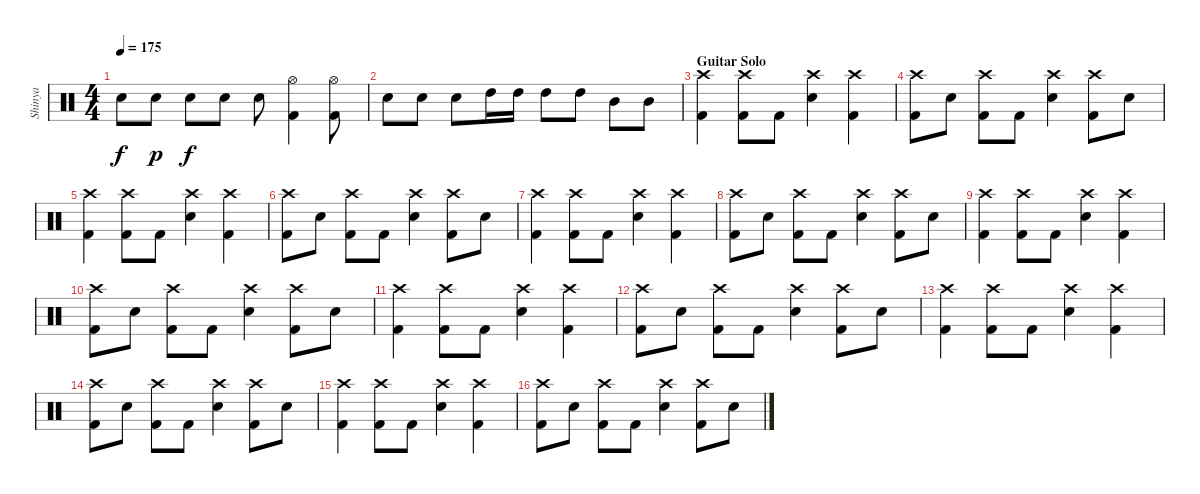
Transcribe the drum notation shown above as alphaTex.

\track ("Shinya" "Shinya") {instrument percussion}
\staff {score}
\articulation defaults
\ts (4 4)
\tempo 175
\clef neutral
\ks c "Snare (hit) 2".8{dy f} "Snare (hit) 2".8{dy p} "Snare (hit) 2".8{dy f} "Snare (hit) 2".8 "Snare (hit) 2".8
("Hi-Hat (open)" "Kick (hit) 2").4 ("Hi-Hat (open)" "Kick (hit) 2").8 |
"Snare (hit) 2".8 "Snare (hit) 2".8 "Snare (hit) 2".8 "High Tom (hit)".16 "High Tom (hit)".16 "High Tom (hit)".8 "High Tom (hit)".8 "Mid Tom (hit)".8 "Mid Tom (hit)".8 |
\section ("" "Guitar Solo")
("Crash high (hit)" "Kick (hit) 2").4 ("Crash high (hit)" "Kick (hit) 2").8 "Kick (hit) 2".8 ("Crash high (hit)" "Snare (hit) 2").4 ("Crash high (hit)" "Kick (hit) 2").4 |
("Kick (hit) 2" "Crash high (hit)").8 "Snare (hit) 2".8 ("Crash high (hit)" "Kick (hit) 2").8 "Kick (hit) 2".8 ("Crash high (hit)" "Snare (hit) 2").4 ("Kick (hit) 2" "Crash high (hit)").8 "Snare (hit) 2".8 |
("Crash high (hit)" "Kick (hit) 2").4 ("Crash high (hit)" "Kick (hit) 2").8 "Kick (hit) 2".8 ("Crash high (hit)" "Snare (hit) 2").4 ("Crash high (hit)" "Kick (hit) 2").4 |
("Kick (hit) 2" "Crash high (hit)").8 "Snare (hit) 2".8 ("Crash high (hit)" "Kick (hit) 2").8 "Kick (hit) 2".8 ("Crash high (hit)" "Snare (hit) 2").4 ("Kick (hit) 2" "Crash high (hit)").8 "Snare (hit) 2".8 |
("Crash high (hit)" "Kick (hit) 2").4 ("Crash high (hit)" "Kick (hit) 2").8 "Kick (hit) 2".8 ("Crash high (hit)" "Snare (hit) 2").4 ("Crash high (hit)" "Kick (hit) 2").4 |
("Kick (hit) 2" "Crash high (hit)").8 "Snare (hit) 2".8 ("Crash high (hit)" "Kick (hit) 2").8 "Kick (hit) 2".8 ("Crash high (hit)" "Snare (hit) 2").4 ("Kick (hit) 2" "Crash high (hit)").8 "Snare (hit) 2".8 |
("Crash high (hit)" "Kick (hit) 2").4 ("Crash high (hit)" "Kick (hit) 2").8 "Kick (hit) 2".8 ("Crash high (hit)" "Snare (hit) 2").4 ("Crash high (hit)" "Kick (hit) 2").4 |
("Kick (hit) 2" "Crash high (hit)").8 "Snare (hit) 2".8 ("Crash high (hit)" "Kick (hit) 2").8 "Kick (hit) 2".8 ("Crash high (hit)" "Snare (hit) 2").4 ("Kick (hit) 2" "Crash high (hit)").8 "Snare (hit) 2".8 |
("Crash high (hit)" "Kick (hit) 2").4 ("Crash high (hit)" "Kick (hit) 2").8 "Kick (hit) 2".8 ("Crash high (hit)" "Snare (hit) 2").4 ("Crash high (hit)" "Kick (hit) 2").4 |
("Kick (hit) 2" "Crash high (hit)").8 "Snare (hit) 2".8 ("Crash high (hit)" "Kick (hit) 2").8 "Kick (hit) 2".8 ("Crash high (hit)" "Snare (hit) 2").4 ("Kick (hit) 2" "Crash high (hit)").8 "Snare (hit) 2".8 |
("Crash high (hit)" "Kick (hit) 2").4 ("Crash high (hit)" "Kick (hit) 2").8 "Kick (hit) 2".8 ("Crash high (hit)" "Snare (hit) 2").4 ("Crash high (hit)" "Kick (hit) 2").4 |
("Kick (hit) 2" "Crash high (hit)").8 "Snare (hit) 2".8 ("Crash high (hit)" "Kick (hit) 2").8 "Kick (hit) 2".8 ("Crash high (hit)" "Snare (hit) 2").4 ("Kick (hit) 2" "Crash high (hit)").8 "Snare (hit) 2".8 |
("Crash high (hit)" "Kick (hit) 2").4 ("Crash high (hit)" "Kick (hit) 2").8 "Kick (hit) 2".8 ("Crash high (hit)" "Snare (hit) 2").4 ("Crash high (hit)" "Kick (hit) 2").4 |
("Kick (hit) 2" "Crash high (hit)").8 "Snare (hit) 2".8 ("Crash high (hit)" "Kick (hit) 2").8 "Kick (hit) 2".8 ("Crash high (hit)" "Snare (hit) 2").4 ("Kick (hit) 2" "Crash high (hit)").8 "Snare (hit) 2".8
